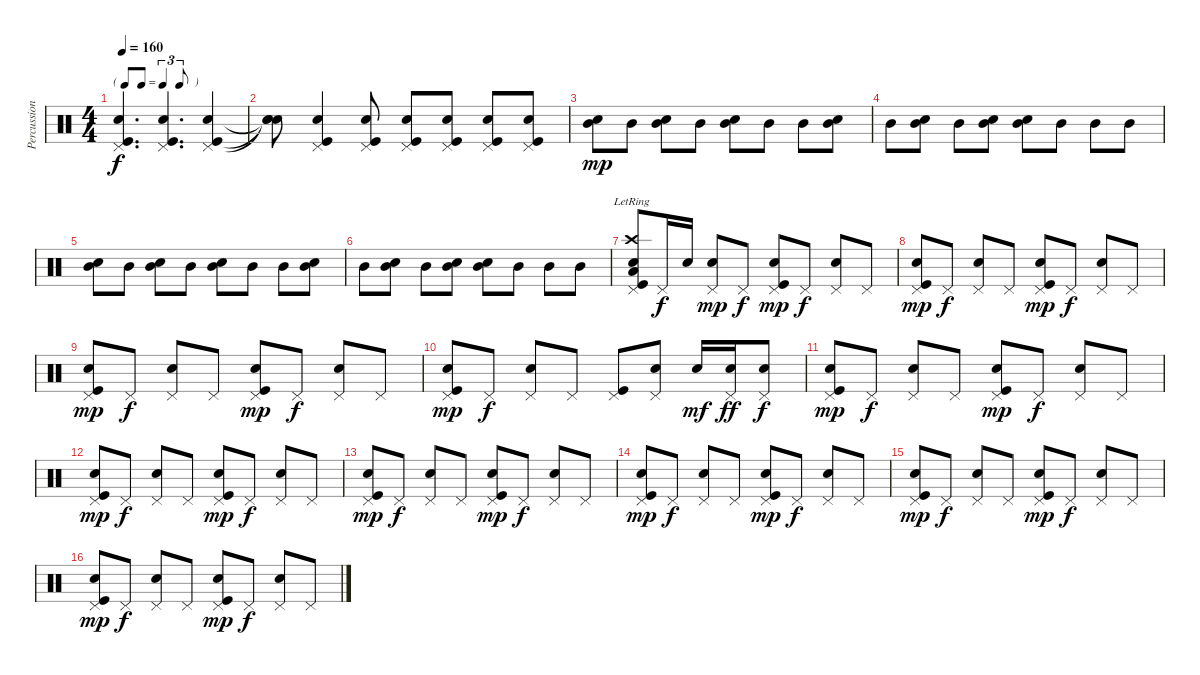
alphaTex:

\track ("Percussions" "Percussion") {instrument percussion}
\staff {score}
\articulation defaults
\ts (4 4)
\tf triplet8th
\tempo 160
\clef neutral
\ks c
("Pedal Hi-Hat (hit)" "Snare (hit) 2" "Kick (hit)").4{d dy f} ("Pedal Hi-Hat (hit)" "Snare (hit) 2" "Kick (hit)").4{d} ("Pedal Hi-Hat (hit)" "Snare (hit) 2" "Kick (hit)").4 |
("Snare (hit)"{t} "Snare (hit)"{t} "Snare (hit)"{t}).8 ("Pedal Hi-Hat (hit)" "Snare (hit) 2" "Kick (hit)").4 ("Pedal Hi-Hat (hit)" "Snare (hit) 2" "Kick (hit)").8 ("Pedal Hi-Hat (hit)" "Snare (hit) 2" "Kick (hit)").8 ("Pedal Hi-Hat (hit)" "Snare (hit) 2" "Kick (hit)").8 ("Pedal Hi-Hat (hit)" "Snare (hit) 2" "Kick (hit)").8 ("Pedal Hi-Hat (hit)" "Snare (hit) 2" "Kick (hit)").8 |
("Mid Tom (hit)" "Snare (hit) 2").8{dy mp} "Mid Tom (hit)".8 ("Mid Tom (hit)" "Snare (hit) 2").8 "Mid Tom (hit)".8 ("Mid Tom (hit)" "Snare (hit) 2").8 "Mid Tom (hit)".8 "Mid Tom (hit)".8 ("Mid Tom (hit)" "Snare (hit) 2").8 |
"Mid Tom (hit)".8 ("Mid Tom (hit)" "Snare (hit) 2").8 "Mid Tom (hit)".8 ("Mid Tom (hit)" "Snare (hit) 2").8 ("Mid Tom (hit)" "Snare (hit) 2").8 "Mid Tom (hit)".8 "Mid Tom (hit)".8 "Mid Tom (hit)".8 |
("Mid Tom (hit)" "Snare (hit) 2").8 "Mid Tom (hit)".8 ("Mid Tom (hit)" "Snare (hit) 2").8 "Mid Tom (hit)".8 ("Mid Tom (hit)" "Snare (hit) 2").8 "Mid Tom (hit)".8 "Mid Tom (hit)".8 ("Mid Tom (hit)" "Snare (hit) 2").8 |
"Mid Tom (hit)".8 ("Mid Tom (hit)" "Snare (hit) 2").8 "Mid Tom (hit)".8 ("Mid Tom (hit)" "Snare (hit) 2").8 ("Mid Tom (hit)" "Snare (hit) 2").8 "Mid Tom (hit)".8 "Mid Tom (hit)".8 "Mid Tom (hit)".8 |
("Pedal Hi-Hat (hit)" "Crash high (hit)"{lr} "Snare (hit) 2" "Low Tom (hit)" "Kick (hit)").8 "Pedal Hi-Hat (hit)".16{dy f} "Snare (hit) 2".16 ("Pedal Hi-Hat (hit)" "Snare (hit) 2").8{dy mp} "Pedal Hi-Hat (hit)".8{dy f} ("Pedal Hi-Hat (hit)" "Snare (hit) 2" "Kick (hit)").8{dy mp} "Pedal Hi-Hat (hit)".8{dy f} ("Pedal Hi-Hat (hit)" "Snare (hit) 2").8 "Pedal Hi-Hat (hit)".8 |
("Pedal Hi-Hat (hit)" "Snare (hit) 2" "Kick (hit)").8{dy mp} "Pedal Hi-Hat (hit)".8{dy f} ("Pedal Hi-Hat (hit)" "Snare (hit) 2").8 "Pedal Hi-Hat (hit)".8 ("Pedal Hi-Hat (hit)" "Snare (hit) 2" "Kick (hit)").8{dy mp} "Pedal Hi-Hat (hit)".8{dy f} ("Pedal Hi-Hat (hit)" "Snare (hit) 2").8 "Pedal Hi-Hat (hit)".8 |
("Pedal Hi-Hat (hit)" "Snare (hit) 2" "Kick (hit)").8{dy mp} "Pedal Hi-Hat (hit)".8{dy f} ("Pedal Hi-Hat (hit)" "Snare (hit) 2").8 "Pedal Hi-Hat (hit)".8 ("Pedal Hi-Hat (hit)" "Snare (hit) 2" "Kick (hit)").8{dy mp} "Pedal Hi-Hat (hit)".8{dy f} ("Pedal Hi-Hat (hit)" "Snare (hit) 2").8 "Pedal Hi-Hat (hit)".8 |
("Pedal Hi-Hat (hit)" "Snare (hit) 2" "Kick (hit)").8{dy mp} "Pedal Hi-Hat (hit)".8{dy f} ("Pedal Hi-Hat (hit)" "Snare (hit) 2").8 "Pedal Hi-Hat (hit)".8 ("Pedal Hi-Hat (hit)" "Kick (hit)").8 ("Pedal Hi-Hat (hit)" "Snare (hit) 2").8 "Snare (hit) 2".16{dy mf} ("Pedal Hi-Hat (hit)" "Snare (hit) 2").16{dy ff} ("Pedal Hi-Hat (hit)" "Snare (hit) 2").8{dy f} |
("Pedal Hi-Hat (hit)" "Snare (hit) 2" "Kick (hit)").8{dy mp} "Pedal Hi-Hat (hit)".8{dy f} ("Pedal Hi-Hat (hit)" "Snare (hit) 2").8 "Pedal Hi-Hat (hit)".8 ("Pedal Hi-Hat (hit)" "Snare (hit) 2" "Kick (hit)").8{dy mp} "Pedal Hi-Hat (hit)".8{dy f} ("Pedal Hi-Hat (hit)" "Snare (hit) 2").8 "Pedal Hi-Hat (hit)".8 |
("Pedal Hi-Hat (hit)" "Snare (hit) 2" "Kick (hit)").8{dy mp} "Pedal Hi-Hat (hit)".8{dy f} ("Pedal Hi-Hat (hit)" "Snare (hit) 2").8 "Pedal Hi-Hat (hit)".8 ("Pedal Hi-Hat (hit)" "Snare (hit) 2" "Kick (hit)").8{dy mp} "Pedal Hi-Hat (hit)".8{dy f} ("Pedal Hi-Hat (hit)" "Snare (hit) 2").8 "Pedal Hi-Hat (hit)".8 |
("Pedal Hi-Hat (hit)" "Snare (hit) 2" "Kick (hit)").8{dy mp} "Pedal Hi-Hat (hit)".8{dy f} ("Pedal Hi-Hat (hit)" "Snare (hit) 2").8 "Pedal Hi-Hat (hit)".8 ("Pedal Hi-Hat (hit)" "Snare (hit) 2" "Kick (hit)").8{dy mp} "Pedal Hi-Hat (hit)".8{dy f} ("Pedal Hi-Hat (hit)" "Snare (hit) 2").8 "Pedal Hi-Hat (hit)".8 |
("Pedal Hi-Hat (hit)" "Snare (hit) 2" "Kick (hit)").8{dy mp} "Pedal Hi-Hat (hit)".8{dy f} ("Pedal Hi-Hat (hit)" "Snare (hit) 2").8 "Pedal Hi-Hat (hit)".8 ("Pedal Hi-Hat (hit)" "Snare (hit) 2" "Kick (hit)").8{dy mp} "Pedal Hi-Hat (hit)".8{dy f} ("Pedal Hi-Hat (hit)" "Snare (hit) 2").8 "Pedal Hi-Hat (hit)".8 |
("Pedal Hi-Hat (hit)" "Snare (hit) 2" "Kick (hit)").8{dy mp} "Pedal Hi-Hat (hit)".8{dy f} ("Pedal Hi-Hat (hit)" "Snare (hit) 2").8 "Pedal Hi-Hat (hit)".8 ("Pedal Hi-Hat (hit)" "Snare (hit) 2" "Kick (hit)").8{dy mp} "Pedal Hi-Hat (hit)".8{dy f} ("Pedal Hi-Hat (hit)" "Snare (hit) 2").8 "Pedal Hi-Hat (hit)".8 |
("Pedal Hi-Hat (hit)" "Snare (hit) 2" "Kick (hit)").8{dy mp} "Pedal Hi-Hat (hit)".8{dy f} ("Pedal Hi-Hat (hit)" "Snare (hit) 2").8 "Pedal Hi-Hat (hit)".8 ("Pedal Hi-Hat (hit)" "Snare (hit) 2" "Kick (hit)").8{dy mp} "Pedal Hi-Hat (hit)".8{dy f} ("Pedal Hi-Hat (hit)" "Snare (hit) 2").8 "Pedal Hi-Hat (hit)".8
